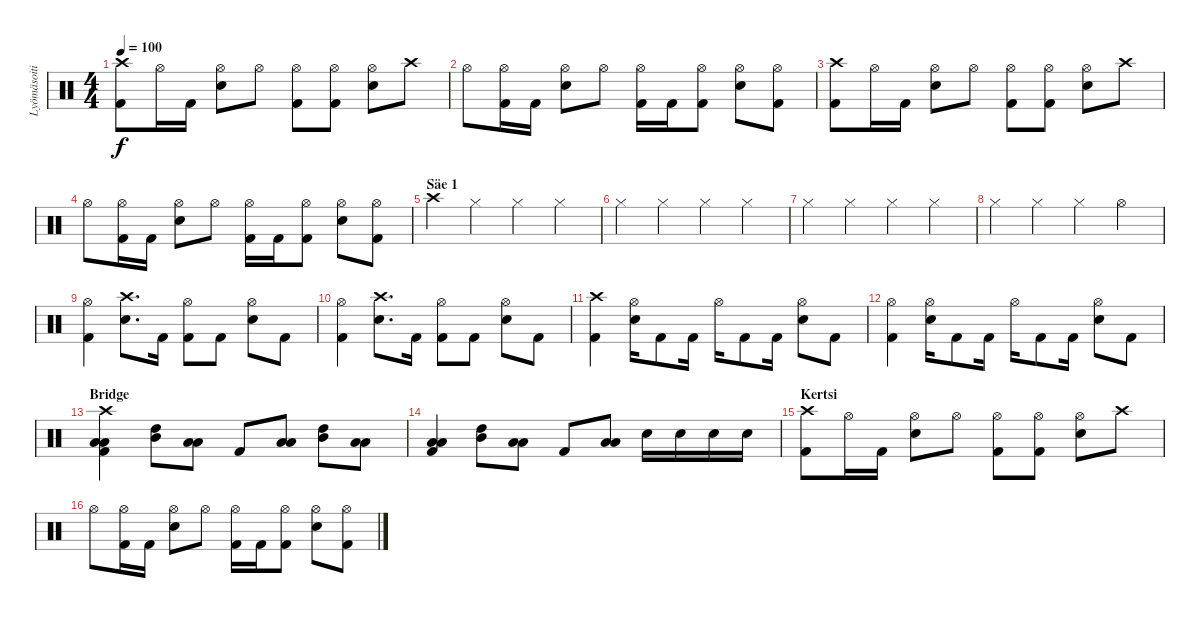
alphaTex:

\track ("Lyömäsoitin" "Lyömäsoiti") {instrument percussion}
\staff {score}
\articulation defaults
\ts (4 4)
\tempo 100
\clef neutral
\ks c
("Crash high (hit)" "Kick (hit) 2").8{dy f} "Hi-Hat (open)".16 "Kick (hit) 2".16 ("Hi-Hat (open)" "Snare (hit) 2").8 "Hi-Hat (open)".8 ("Hi-Hat (open)" "Kick (hit) 2").8 ("Hi-Hat (open)" "Kick (hit) 2").8 ("Hi-Hat (open)" "Snare (hit) 2").8 "Crash high (hit)".8 |
"Hi-Hat (open)".8 ("Hi-Hat (open)" "Kick (hit) 2").16 "Kick (hit) 2".16 ("Hi-Hat (open)" "Snare (hit) 2").8 "Hi-Hat (open)".8 ("Hi-Hat (open)" "Kick (hit) 2").16 "Kick (hit) 2".16 ("Hi-Hat (open)" "Kick (hit) 2").8 ("Hi-Hat (open)" "Snare (hit) 2").8 ("Hi-Hat (open)" "Kick (hit) 2").8 |
("Crash high (hit)" "Kick (hit) 2").8 "Hi-Hat (open)".16 "Kick (hit) 2".16 ("Hi-Hat (open)" "Snare (hit) 2").8 "Hi-Hat (open)".8 ("Hi-Hat (open)" "Kick (hit) 2").8 ("Hi-Hat (open)" "Kick (hit) 2").8 ("Hi-Hat (open)" "Snare (hit) 2").8 "Crash high (hit)".8 |
"Hi-Hat (open)".8 ("Hi-Hat (open)" "Kick (hit) 2").16 "Kick (hit) 2".16 ("Hi-Hat (open)" "Snare (hit) 2").8 "Hi-Hat (open)".8 ("Hi-Hat (open)" "Kick (hit) 2").16 "Kick (hit) 2".16 ("Hi-Hat (open)" "Kick (hit) 2").8 ("Hi-Hat (open)" "Snare (hit) 2").8 ("Hi-Hat (open)" "Kick (hit) 2").8 |
\section ("" "Säe 1")
"Crash high (hit)".4 "Hi-Hat (closed)".4 "Hi-Hat (closed)".4 "Hi-Hat (closed)".4 |
"Hi-Hat (closed)".4 "Hi-Hat (closed)".4 "Hi-Hat (closed)".4 "Hi-Hat (closed)".4 |
"Hi-Hat (closed)".4 "Hi-Hat (closed)".4 "Hi-Hat (closed)".4 "Hi-Hat (closed)".4 |
"Hi-Hat (closed)".4 "Hi-Hat (closed)".4 "Hi-Hat (closed)".4 "Hi-Hat (open)".4 |
("Hi-Hat (open)" "Kick (hit) 2").4 ("Crash high (hit)" "Snare (hit) 2").8{d} "Kick (hit) 2".16 ("Hi-Hat (open)" "Kick (hit) 2").8 "Kick (hit) 2".8 ("Hi-Hat (open)" "Snare (hit) 2").8 "Kick (hit) 2".8 |
("Hi-Hat (open)" "Kick (hit) 2").4 ("Crash high (hit)" "Snare (hit) 2").8{d} "Kick (hit) 2".16 ("Hi-Hat (open)" "Kick (hit) 2").8 "Kick (hit) 2".8 ("Hi-Hat (open)" "Snare (hit) 2").8 "Kick (hit) 2".8 |
("Crash high (hit)" "Kick (hit) 2").4 ("Hi-Hat (open)" "Snare (hit) 2").16 "Kick (hit) 2".8 "Kick (hit) 2".16 "Hi-Hat (open)".16 "Kick (hit) 2".8 "Kick (hit) 2".16 ("Hi-Hat (open)" "Snare (hit) 2").8 "Kick (hit) 2".8 |
("Hi-Hat (open)" "Kick (hit) 2").4 ("Hi-Hat (open)" "Snare (hit) 2").16 "Kick (hit) 2".8 "Kick (hit) 2".16 "Hi-Hat (open)".16 "Kick (hit) 2".8 "Kick (hit) 2".16 ("Hi-Hat (open)" "Snare (hit) 2").8 "Kick (hit) 2".8 |
\section ("" "Bridge")
("Crash high (hit)" "Low Tom (hit)" "Low Tom (hit)" "Kick (hit) 2").4 ("Mid Tom (hit)" "High Tom (hit)").8 ("Low Tom (hit)" "Low Tom (hit)").8 "Kick (hit) 2".8 ("Low Tom (hit)" "Low Tom (hit)").8 ("High Tom (hit)" "Mid Tom (hit)").8 ("Low Tom (hit)" "Low Tom (hit)").8 |
("Low Tom (hit)" "Low Tom (hit)" "Kick (hit) 2").4 ("Mid Tom (hit)" "High Tom (hit)").8 ("Low Tom (hit)" "Low Tom (hit)").8 "Kick (hit) 2".8 ("Low Tom (hit)" "Low Tom (hit)").8 "Snare (hit) 2".16 "Snare (hit) 2".16 "Snare (hit) 2".16 "Snare (hit) 2".16 |
\section ("" "Kertsi")
("Crash high (hit)" "Kick (hit) 2").8 "Hi-Hat (open)".16 "Kick (hit) 2".16 ("Hi-Hat (open)" "Snare (hit) 2").8 "Hi-Hat (open)".8 ("Hi-Hat (open)" "Kick (hit) 2").8 ("Hi-Hat (open)" "Kick (hit) 2").8 ("Hi-Hat (open)" "Snare (hit) 2").8 "Crash high (hit)".8 |
"Hi-Hat (open)".8 ("Hi-Hat (open)" "Kick (hit) 2").16 "Kick (hit) 2".16 ("Hi-Hat (open)" "Snare (hit) 2").8 "Hi-Hat (open)".8 ("Hi-Hat (open)" "Kick (hit) 2").16 "Kick (hit) 2".16 ("Hi-Hat (open)" "Kick (hit) 2").8 ("Hi-Hat (open)" "Snare (hit) 2").8 ("Hi-Hat (open)" "Kick (hit) 2").8
